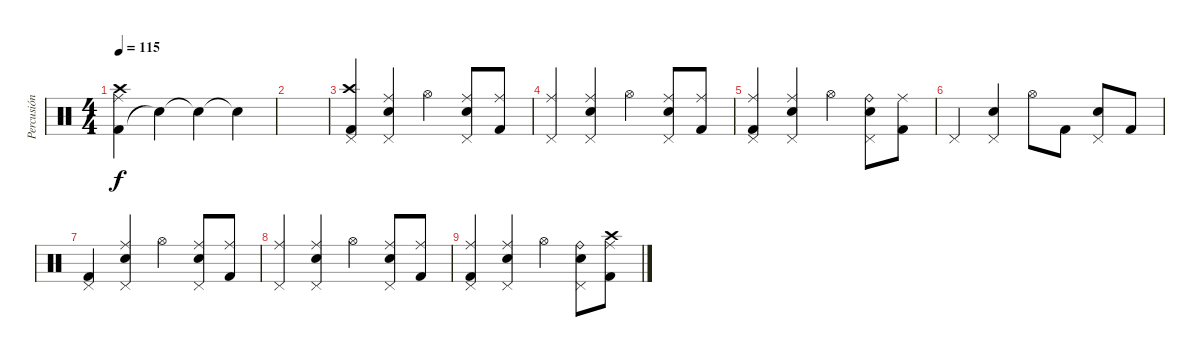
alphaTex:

\track ("Percusión" "Percusión") {instrument percussion}
\staff {score}
\articulation defaults
\ts (4 4)
\tempo 115
\clef neutral
\ks c
("Kick (hit) 2" "Ride (middle)" "Crash high (hit)").4{dy f} "Snare (hit)"{t}.4 "Snare (hit)"{t}.4 "Snare (hit)"{t}.4 |
|
("Kick (hit) 2" "Pedal Hi-Hat (hit)" "Crash high (hit)").4 ("Snare (hit) 2" "Pedal Hi-Hat (hit)" "Ride (middle)").4 "Hi-Hat (open)".4 ("Snare (hit) 2" "Pedal Hi-Hat (hit)" "Ride (middle)").8 ("Kick (hit) 2" "Ride (middle)").8 |
("Pedal Hi-Hat (hit)" "Ride (middle)").4 ("Snare (hit) 2" "Pedal Hi-Hat (hit)" "Ride (middle)").4 "Hi-Hat (open)".4 ("Snare (hit) 2" "Pedal Hi-Hat (hit)" "Ride (middle)").8 ("Kick (hit) 2" "Ride (middle)").8 |
("Kick (hit) 2" "Pedal Hi-Hat (hit)" "Ride (middle)").4 ("Snare (hit) 2" "Pedal Hi-Hat (hit)" "Ride (middle)").4 "Hi-Hat (open)".4 ("Snare (hit) 2" "Pedal Hi-Hat (hit)" "Ride (bell)").8 ("Kick (hit) 2" "Ride (middle)").8 |
"Pedal Hi-Hat (hit)".4 ("Snare (hit) 2" "Pedal Hi-Hat (hit)").4 "Hi-Hat (open)".8 "Kick (hit) 2".8 ("Snare (hit) 2" "Pedal Hi-Hat (hit)").8 "Kick (hit) 2".8 |
("Kick (hit) 2" "Pedal Hi-Hat (hit)").4 ("Snare (hit) 2" "Pedal Hi-Hat (hit)" "Ride (middle)").4 "Hi-Hat (open)".4 ("Snare (hit) 2" "Pedal Hi-Hat (hit)" "Ride (middle)").8 ("Kick (hit) 2" "Ride (middle)").8 |
("Pedal Hi-Hat (hit)" "Ride (middle)").4 ("Snare (hit) 2" "Pedal Hi-Hat (hit)" "Ride (middle)").4 "Hi-Hat (open)".4 ("Snare (hit) 2" "Pedal Hi-Hat (hit)" "Ride (middle)").8 ("Kick (hit) 2" "Ride (middle)").8 |
("Kick (hit) 2" "Pedal Hi-Hat (hit)" "Ride (middle)").4 ("Snare (hit) 2" "Pedal Hi-Hat (hit)" "Ride (middle)").4 "Hi-Hat (open)".4 ("Snare (hit) 2" "Pedal Hi-Hat (hit)" "Ride (bell)").8 ("Kick (hit) 2" "Crash high (hit)" "Ride (middle)").8
